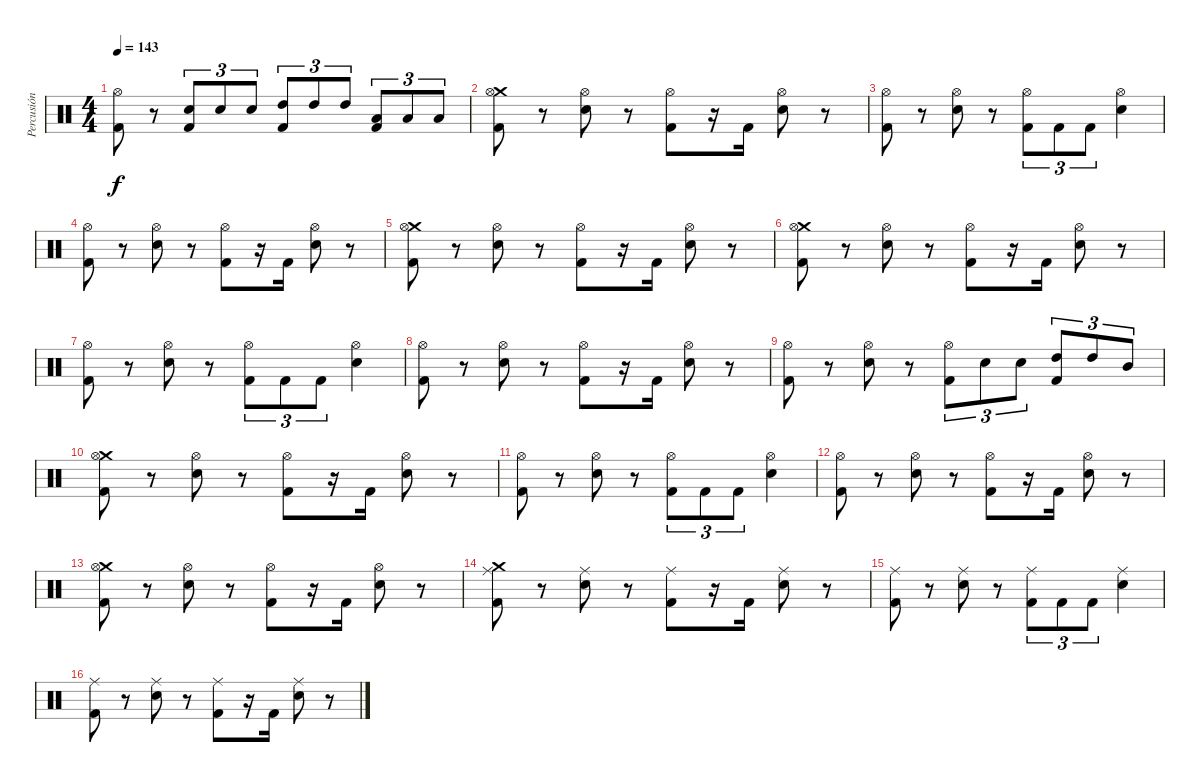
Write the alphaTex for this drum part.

\track ("Percusión" "Percusión") {instrument percussion}
\staff {score}
\articulation defaults
\ts (4 4)
\tempo 143
\clef neutral
\ks c
("Hi-Hat (open)" "Kick (hit) 2").8{dy f} r.8 ("Electric Snare (hit)" "Kick (hit) 2").8{tu (3 2)} "Electric Snare (hit)".8{tu (3 2)} "Electric Snare (hit)".8{tu (3 2)} ("High Tom (hit)" "Kick (hit) 2").8{tu (3 2)} "High Tom (hit)".8{tu (3 2)} "High Tom (hit)".8{tu (3 2)} ("Low Tom (hit)" "Kick (hit) 2").8{tu (3 2)} "Low Tom (hit)".8{tu (3 2)} "Low Tom (hit)".8{tu (3 2)} |
("Crash medium (hit)" "Hi-Hat (open)" "Kick (hit) 2").8 r.8 ("Hi-Hat (open)" "Electric Snare (hit)").8 r.8 ("Hi-Hat (open)" "Kick (hit) 2").8 r.16 "Kick (hit) 2".16 ("Electric Snare (hit)" "Hi-Hat (open)").8 r.8 |
("Hi-Hat (open)" "Kick (hit) 2").8 r.8 ("Hi-Hat (open)" "Electric Snare (hit)").8 r.8 ("Hi-Hat (open)" "Kick (hit) 2").8{tu (3 2)} "Kick (hit) 2".8{tu (3 2)} "Kick (hit) 2".8{tu (3 2)} ("Hi-Hat (open)" "Electric Snare (hit)").4 |
("Hi-Hat (open)" "Kick (hit) 2").8 r.8 ("Hi-Hat (open)" "Electric Snare (hit)").8 r.8 ("Hi-Hat (open)" "Kick (hit) 2").8 r.16 "Kick (hit) 2".16 ("Electric Snare (hit)" "Hi-Hat (open)").8 r.8 |
("Crash medium (hit)" "Hi-Hat (open)" "Kick (hit) 2").8 r.8 ("Hi-Hat (open)" "Electric Snare (hit)").8 r.8 ("Hi-Hat (open)" "Kick (hit) 2").8 r.16 "Kick (hit) 2".16 ("Electric Snare (hit)" "Hi-Hat (open)").8 r.8 |
("Crash medium (hit)" "Hi-Hat (open)" "Kick (hit) 2").8 r.8 ("Hi-Hat (open)" "Electric Snare (hit)").8 r.8 ("Hi-Hat (open)" "Kick (hit) 2").8 r.16 "Kick (hit) 2".16 ("Electric Snare (hit)" "Hi-Hat (open)").8 r.8 |
("Hi-Hat (open)" "Kick (hit) 2").8 r.8 ("Hi-Hat (open)" "Electric Snare (hit)").8 r.8 ("Hi-Hat (open)" "Kick (hit) 2").8{tu (3 2)} "Kick (hit) 2".8{tu (3 2)} "Kick (hit) 2".8{tu (3 2)} ("Hi-Hat (open)" "Electric Snare (hit)").4 |
("Hi-Hat (open)" "Kick (hit) 2").8 r.8 ("Hi-Hat (open)" "Electric Snare (hit)").8 r.8 ("Hi-Hat (open)" "Kick (hit) 2").8 r.16 "Kick (hit) 2".16 ("Electric Snare (hit)" "Hi-Hat (open)").8 r.8 |
("Hi-Hat (open)" "Kick (hit) 2").8 r.8 ("Hi-Hat (open)" "Electric Snare (hit)").8 r.8 ("Hi-Hat (open)" "Kick (hit) 2").8{tu (3 2)} "Electric Snare (hit)".8{tu (3 2)} "Electric Snare (hit)".8{tu (3 2)} ("High Tom (hit)" "Kick (hit) 2").8{tu (3 2)} "High Tom (hit)".8{tu (3 2)} "Mid Tom (hit)".8{tu (3 2)} |
("Crash medium (hit)" "Hi-Hat (open)" "Kick (hit) 2").8 r.8 ("Hi-Hat (open)" "Electric Snare (hit)").8 r.8 ("Hi-Hat (open)" "Kick (hit) 2").8 r.16 "Kick (hit) 2".16 ("Electric Snare (hit)" "Hi-Hat (open)").8 r.8 |
("Hi-Hat (open)" "Kick (hit) 2").8 r.8 ("Hi-Hat (open)" "Electric Snare (hit)").8 r.8 ("Hi-Hat (open)" "Kick (hit) 2").8{tu (3 2)} "Kick (hit) 2".8{tu (3 2)} "Kick (hit) 2".8{tu (3 2)} ("Hi-Hat (open)" "Electric Snare (hit)").4 |
("Hi-Hat (open)" "Kick (hit) 2").8 r.8 ("Hi-Hat (open)" "Electric Snare (hit)").8 r.8 ("Hi-Hat (open)" "Kick (hit) 2").8 r.16 "Kick (hit) 2".16 ("Electric Snare (hit)" "Hi-Hat (open)").8 r.8 |
("Crash medium (hit)" "Hi-Hat (open)" "Kick (hit) 2").8 r.8 ("Hi-Hat (open)" "Electric Snare (hit)").8 r.8 ("Hi-Hat (open)" "Kick (hit) 2").8 r.16 "Kick (hit) 2".16 ("Electric Snare (hit)" "Hi-Hat (open)").8 r.8 |
("Crash medium (hit)" "Ride (middle)" "Kick (hit) 2").8 r.8 ("Ride (middle)" "Electric Snare (hit)").8 r.8 ("Ride (middle)" "Kick (hit) 2").8 r.16 "Kick (hit) 2".16 ("Electric Snare (hit)" "Ride (middle)").8 r.8 |
("Ride (middle)" "Kick (hit) 2").8 r.8 ("Ride (middle)" "Electric Snare (hit)").8 r.8 ("Ride (middle)" "Kick (hit) 2").8{tu (3 2)} "Kick (hit) 2".8{tu (3 2)} "Kick (hit) 2".8{tu (3 2)} ("Ride (middle)" "Electric Snare (hit)").4 |
("Ride (middle)" "Kick (hit) 2").8 r.8 ("Ride (middle)" "Electric Snare (hit)").8 r.8 ("Ride (middle)" "Kick (hit) 2").8 r.16 "Kick (hit) 2".16 ("Electric Snare (hit)" "Ride (middle)").8 r.8
